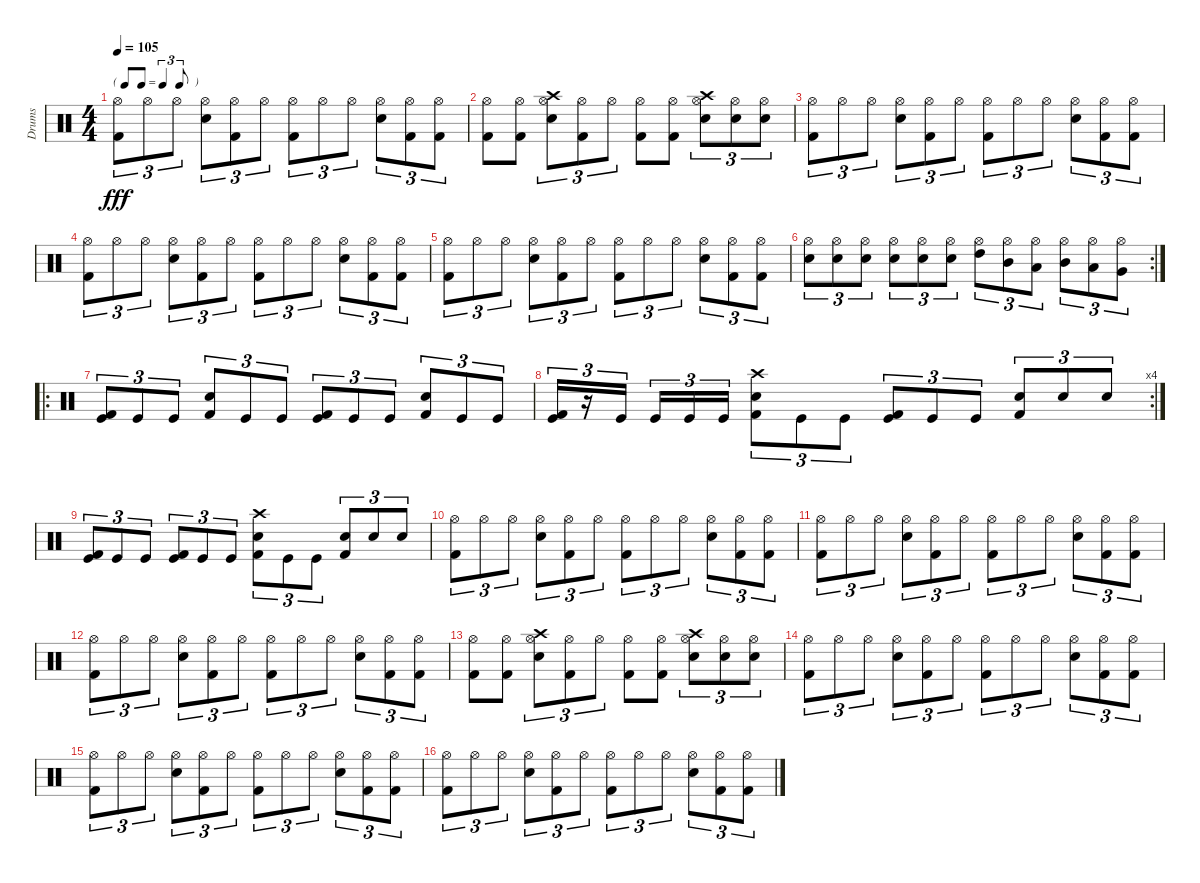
\track ("Drums" "Drums") {instrument percussion}
\staff {score}
\articulation defaults
\ts (4 4)
\tf triplet8th
\tempo 105
\clef neutral
\ks c
("Hi-Hat (open)" "Kick (hit) 2").8{tu (3 2) dy fff} "Hi-Hat (open)".8{tu (3 2)} "Hi-Hat (open)".8{tu (3 2)} ("Hi-Hat (open)" "Snare (hit) 2").8{tu (3 2)} ("Hi-Hat (open)" "Kick (hit) 2").8{tu (3 2)} "Hi-Hat (open)".8{tu (3 2)} ("Hi-Hat (open)" "Kick (hit) 2").8{tu (3 2)} "Hi-Hat (open)".8{tu (3 2)} "Hi-Hat (open)".8{tu (3 2)} ("Hi-Hat (open)" "Snare (hit) 2").8{tu (3 2)} ("Hi-Hat (open)" "Kick (hit) 2").8{tu (3 2)} ("Hi-Hat (open)" "Kick (hit) 2").8{tu (3 2)} |
("Hi-Hat (open)" "Kick (hit) 2").8 ("Hi-Hat (open)" "Kick (hit) 2").8 ("Hi-Hat (open)" "Snare (hit) 2" "Crash high (hit)").8{tu (3 2)} ("Hi-Hat (open)" "Kick (hit) 2").8{tu (3 2)} "Hi-Hat (open)".8{tu (3 2)} ("Hi-Hat (open)" "Kick (hit) 2").8 ("Hi-Hat (open)" "Kick (hit) 2").8 ("Hi-Hat (open)" "Snare (hit) 2" "Crash high (hit)").8{tu (3 2)} ("Hi-Hat (open)" "Snare (hit) 2").8{tu (3 2)} ("Hi-Hat (open)" "Snare (hit) 2").8{tu (3 2)} |
("Hi-Hat (open)" "Kick (hit) 2").8{tu (3 2)} "Hi-Hat (open)".8{tu (3 2)} "Hi-Hat (open)".8{tu (3 2)} ("Hi-Hat (open)" "Snare (hit) 2").8{tu (3 2)} ("Hi-Hat (open)" "Kick (hit) 2").8{tu (3 2)} "Hi-Hat (open)".8{tu (3 2)} ("Hi-Hat (open)" "Kick (hit) 2").8{tu (3 2)} "Hi-Hat (open)".8{tu (3 2)} "Hi-Hat (open)".8{tu (3 2)} ("Hi-Hat (open)" "Snare (hit) 2").8{tu (3 2)} ("Hi-Hat (open)" "Kick (hit) 2").8{tu (3 2)} ("Hi-Hat (open)" "Kick (hit) 2").8{tu (3 2)} |
("Hi-Hat (open)" "Kick (hit) 2").8{tu (3 2)} "Hi-Hat (open)".8{tu (3 2)} "Hi-Hat (open)".8{tu (3 2)} ("Hi-Hat (open)" "Snare (hit) 2").8{tu (3 2)} ("Hi-Hat (open)" "Kick (hit) 2").8{tu (3 2)} "Hi-Hat (open)".8{tu (3 2)} ("Hi-Hat (open)" "Kick (hit) 2").8{tu (3 2)} "Hi-Hat (open)".8{tu (3 2)} "Hi-Hat (open)".8{tu (3 2)} ("Hi-Hat (open)" "Snare (hit) 2").8{tu (3 2)} ("Hi-Hat (open)" "Kick (hit) 2").8{tu (3 2)} ("Hi-Hat (open)" "Kick (hit) 2").8{tu (3 2)} |
("Hi-Hat (open)" "Kick (hit) 2").8{tu (3 2)} "Hi-Hat (open)".8{tu (3 2)} "Hi-Hat (open)".8{tu (3 2)} ("Hi-Hat (open)" "Snare (hit) 2").8{tu (3 2)} ("Hi-Hat (open)" "Kick (hit) 2").8{tu (3 2)} "Hi-Hat (open)".8{tu (3 2)} ("Hi-Hat (open)" "Kick (hit) 2").8{tu (3 2)} "Hi-Hat (open)".8{tu (3 2)} "Hi-Hat (open)".8{tu (3 2)} ("Hi-Hat (open)" "Snare (hit) 2").8{tu (3 2)} ("Hi-Hat (open)" "Kick (hit) 2").8{tu (3 2)} ("Hi-Hat (open)" "Kick (hit) 2").8{tu (3 2)} |
\rc 2
("Hi-Hat (open)" "Snare (hit) 2").8{tu (3 2)} ("Hi-Hat (open)" "Snare (hit) 2").8{tu (3 2)} ("Hi-Hat (open)" "Snare (hit) 2").8{tu (3 2)} ("Hi-Hat (open)" "Snare (hit) 2").8{tu (3 2)} ("Hi-Hat (open)" "Snare (hit) 2").8{tu (3 2)} ("Hi-Hat (open)" "Snare (hit) 2").8{tu (3 2)} ("Hi-Hat (open)" "High Tom (hit)").8{tu (3 2)} ("Hi-Hat (open)" "Mid Tom (hit)").8{tu (3 2)} ("Hi-Hat (open)" "Low Tom (hit)").8{tu (3 2)} ("Hi-Hat (open)" "Mid Tom (hit)").8{tu (3 2)} ("Hi-Hat (open)" "Low Tom (hit)").8{tu (3 2)} ("Hi-Hat (open)" "Very Low Tom (hit)").8{tu (3 2)} |
\ro
("Kick (hit)" "Kick (hit) 2").8{tu (3 2)} "Kick (hit)".8{tu (3 2)} "Kick (hit)".8{tu (3 2)} ("Snare (hit) 2" "Kick (hit) 2").8{tu (3 2)} "Kick (hit)".8{tu (3 2)} "Kick (hit)".8{tu (3 2)} ("Kick (hit)" "Kick (hit) 2").8{tu (3 2)} "Kick (hit)".8{tu (3 2)} "Kick (hit)".8{tu (3 2)} ("Snare (hit) 2" "Kick (hit) 2").8{tu (3 2)} "Kick (hit)".8{tu (3 2)} "Kick (hit)".8{tu (3 2)} |
\rc 4
("Kick (hit)" "Kick (hit) 2").16{tu (3 2)} r.16{tu (3 2)} "Kick (hit)".16{tu (3 2)} "Kick (hit)".16{tu (3 2)} "Kick (hit)".16{tu (3 2)} "Kick (hit)".16{tu (3 2)} ("Snare (hit) 2" "Kick (hit) 2" "Crash high (hit)").8{tu (3 2)} "Kick (hit)".8{tu (3 2)} "Kick (hit)".8{tu (3 2)} ("Kick (hit)" "Kick (hit) 2").8{tu (3 2)} "Kick (hit)".8{tu (3 2)} "Kick (hit)".8{tu (3 2)} ("Snare (hit) 2" "Kick (hit) 2").8{tu (3 2)} "Snare (hit) 2".8{tu (3 2)} "Snare (hit) 2".8{tu (3 2)} |
("Kick (hit)" "Kick (hit) 2").8{tu (3 2)} "Kick (hit)".8{tu (3 2)} "Kick (hit)".8{tu (3 2)} ("Kick (hit)" "Kick (hit) 2").8{tu (3 2)} "Kick (hit)".8{tu (3 2)} "Kick (hit)".8{tu (3 2)} ("Snare (hit) 2" "Kick (hit) 2" "Crash high (hit)").8{tu (3 2)} "Kick (hit)".8{tu (3 2)} "Kick (hit)".8{tu (3 2)} ("Snare (hit) 2" "Kick (hit) 2").8{tu (3 2)} "Snare (hit) 2".8{tu (3 2)} "Snare (hit) 2".8{tu (3 2)} |
("Hi-Hat (open)" "Kick (hit) 2").8{tu (3 2)} "Hi-Hat (open)".8{tu (3 2)} "Hi-Hat (open)".8{tu (3 2)} ("Hi-Hat (open)" "Snare (hit) 2").8{tu (3 2)} ("Hi-Hat (open)" "Kick (hit) 2").8{tu (3 2)} "Hi-Hat (open)".8{tu (3 2)} ("Hi-Hat (open)" "Kick (hit) 2").8{tu (3 2)} "Hi-Hat (open)".8{tu (3 2)} "Hi-Hat (open)".8{tu (3 2)} ("Hi-Hat (open)" "Snare (hit) 2").8{tu (3 2)} ("Hi-Hat (open)" "Kick (hit) 2").8{tu (3 2)} ("Hi-Hat (open)" "Kick (hit) 2").8{tu (3 2)} |
("Hi-Hat (open)" "Kick (hit) 2").8{tu (3 2)} "Hi-Hat (open)".8{tu (3 2)} "Hi-Hat (open)".8{tu (3 2)} ("Hi-Hat (open)" "Snare (hit) 2").8{tu (3 2)} ("Hi-Hat (open)" "Kick (hit) 2").8{tu (3 2)} "Hi-Hat (open)".8{tu (3 2)} ("Hi-Hat (open)" "Kick (hit) 2").8{tu (3 2)} "Hi-Hat (open)".8{tu (3 2)} "Hi-Hat (open)".8{tu (3 2)} ("Hi-Hat (open)" "Snare (hit) 2").8{tu (3 2)} ("Hi-Hat (open)" "Kick (hit) 2").8{tu (3 2)} ("Hi-Hat (open)" "Kick (hit) 2").8{tu (3 2)} |
("Hi-Hat (open)" "Kick (hit) 2").8{tu (3 2)} "Hi-Hat (open)".8{tu (3 2)} "Hi-Hat (open)".8{tu (3 2)} ("Hi-Hat (open)" "Snare (hit) 2").8{tu (3 2)} ("Hi-Hat (open)" "Kick (hit) 2").8{tu (3 2)} "Hi-Hat (open)".8{tu (3 2)} ("Hi-Hat (open)" "Kick (hit) 2").8{tu (3 2)} "Hi-Hat (open)".8{tu (3 2)} "Hi-Hat (open)".8{tu (3 2)} ("Hi-Hat (open)" "Snare (hit) 2").8{tu (3 2)} ("Hi-Hat (open)" "Kick (hit) 2").8{tu (3 2)} ("Hi-Hat (open)" "Kick (hit) 2").8{tu (3 2)} |
("Hi-Hat (open)" "Kick (hit) 2").8 ("Hi-Hat (open)" "Kick (hit) 2").8 ("Hi-Hat (open)" "Snare (hit) 2" "Crash high (hit)").8{tu (3 2)} ("Hi-Hat (open)" "Kick (hit) 2").8{tu (3 2)} "Hi-Hat (open)".8{tu (3 2)} ("Hi-Hat (open)" "Kick (hit) 2").8 ("Hi-Hat (open)" "Kick (hit) 2").8 ("Hi-Hat (open)" "Snare (hit) 2" "Crash high (hit)").8{tu (3 2)} ("Hi-Hat (open)" "Snare (hit) 2").8{tu (3 2)} ("Hi-Hat (open)" "Snare (hit) 2").8{tu (3 2)} |
("Hi-Hat (open)" "Kick (hit) 2").8{tu (3 2)} "Hi-Hat (open)".8{tu (3 2)} "Hi-Hat (open)".8{tu (3 2)} ("Hi-Hat (open)" "Snare (hit) 2").8{tu (3 2)} ("Hi-Hat (open)" "Kick (hit) 2").8{tu (3 2)} "Hi-Hat (open)".8{tu (3 2)} ("Hi-Hat (open)" "Kick (hit) 2").8{tu (3 2)} "Hi-Hat (open)".8{tu (3 2)} "Hi-Hat (open)".8{tu (3 2)} ("Hi-Hat (open)" "Snare (hit) 2").8{tu (3 2)} ("Hi-Hat (open)" "Kick (hit) 2").8{tu (3 2)} ("Hi-Hat (open)" "Kick (hit) 2").8{tu (3 2)} |
("Hi-Hat (open)" "Kick (hit) 2").8{tu (3 2)} "Hi-Hat (open)".8{tu (3 2)} "Hi-Hat (open)".8{tu (3 2)} ("Hi-Hat (open)" "Snare (hit) 2").8{tu (3 2)} ("Hi-Hat (open)" "Kick (hit) 2").8{tu (3 2)} "Hi-Hat (open)".8{tu (3 2)} ("Hi-Hat (open)" "Kick (hit) 2").8{tu (3 2)} "Hi-Hat (open)".8{tu (3 2)} "Hi-Hat (open)".8{tu (3 2)} ("Hi-Hat (open)" "Snare (hit) 2").8{tu (3 2)} ("Hi-Hat (open)" "Kick (hit) 2").8{tu (3 2)} ("Hi-Hat (open)" "Kick (hit) 2").8{tu (3 2)} |
("Hi-Hat (open)" "Kick (hit) 2").8{tu (3 2)} "Hi-Hat (open)".8{tu (3 2)} "Hi-Hat (open)".8{tu (3 2)} ("Hi-Hat (open)" "Snare (hit) 2").8{tu (3 2)} ("Hi-Hat (open)" "Kick (hit) 2").8{tu (3 2)} "Hi-Hat (open)".8{tu (3 2)} ("Hi-Hat (open)" "Kick (hit) 2").8{tu (3 2)} "Hi-Hat (open)".8{tu (3 2)} "Hi-Hat (open)".8{tu (3 2)} ("Hi-Hat (open)" "Snare (hit) 2").8{tu (3 2)} ("Hi-Hat (open)" "Kick (hit) 2").8{tu (3 2)} ("Hi-Hat (open)" "Kick (hit) 2").8{tu (3 2)}
